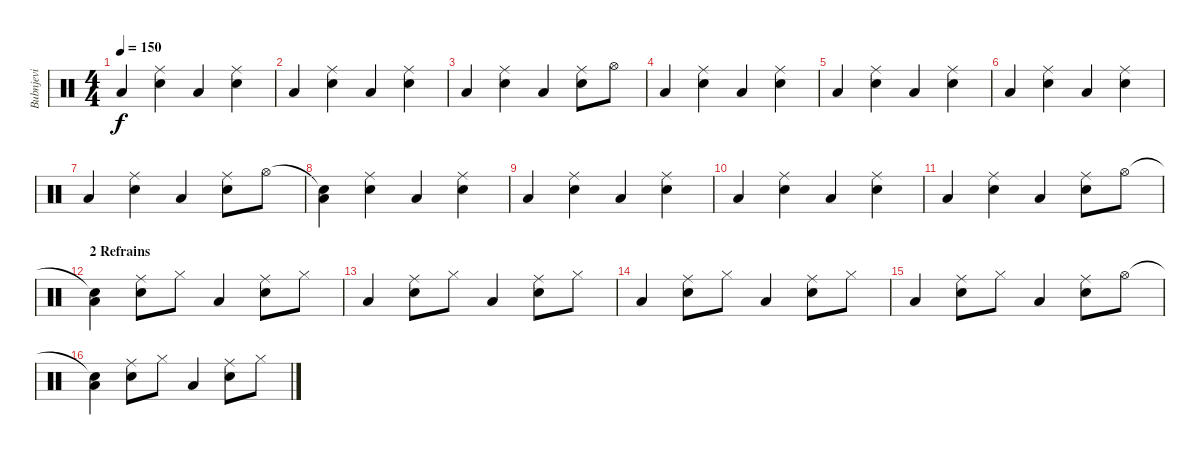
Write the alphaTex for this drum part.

\track ("Bubnjevi" "Bubnjevi") {instrument percussion}
\staff {score}
\articulation defaults
\ts (4 4)
\tempo 150
\clef neutral
\ks c "Low Tom (hit)".4{dy f}
("Ride (middle)" "Snare (hit) 2").4 "Low Tom (hit)".4 ("Ride (middle)" "Snare (hit) 2").4 |
"Low Tom (hit)".4 ("Ride (middle)" "Snare (hit) 2").4 "Low Tom (hit)".4 ("Ride (middle)" "Snare (hit) 2").4 |
"Low Tom (hit)".4 ("Ride (middle)" "Snare (hit) 2").4 "Low Tom (hit)".4 ("Ride (middle)" "Snare (hit) 2").8 "Hi-Hat (open)".8 |
"Low Tom (hit)".4 ("Ride (middle)" "Snare (hit) 2").4 "Low Tom (hit)".4 ("Ride (middle)" "Snare (hit) 2").4 |
"Low Tom (hit)".4 ("Ride (middle)" "Snare (hit) 2").4 "Low Tom (hit)".4 ("Ride (middle)" "Snare (hit) 2").4 |
"Low Tom (hit)".4 ("Ride (middle)" "Snare (hit) 2").4 "Low Tom (hit)".4 ("Ride (middle)" "Snare (hit) 2").4 |
"Low Tom (hit)".4 ("Ride (middle)" "Snare (hit) 2").4 "Low Tom (hit)".4 ("Ride (middle)" "Snare (hit) 2").8 "Hi-Hat (open)".8 |
("Snare (hit)"{t} "Low Tom (hit)").4 ("Ride (middle)" "Snare (hit) 2").4 "Low Tom (hit)".4 ("Ride (middle)" "Snare (hit) 2").4 |
"Low Tom (hit)".4 ("Ride (middle)" "Snare (hit) 2").4 "Low Tom (hit)".4 ("Ride (middle)" "Snare (hit) 2").4 |
"Low Tom (hit)".4 ("Ride (middle)" "Snare (hit) 2").4 "Low Tom (hit)".4 ("Ride (middle)" "Snare (hit) 2").4 |
"Low Tom (hit)".4 ("Ride (middle)" "Snare (hit) 2").4 "Low Tom (hit)".4 ("Ride (middle)" "Snare (hit) 2").8 "Hi-Hat (open)".8 |
\section ("" "2 Refrains")
("Snare (hit)"{t} "Low Tom (hit)").4 ("Ride (middle)" "Snare (hit) 2").8 "Hi-Hat (closed)".8 "Low Tom (hit)".4 ("Ride (middle)" "Snare (hit) 2").8 "Hi-Hat (closed)".8 |
"Low Tom (hit)".4 ("Ride (middle)" "Snare (hit) 2").8 "Hi-Hat (closed)".8 "Low Tom (hit)".4 ("Ride (middle)" "Snare (hit) 2").8 "Hi-Hat (closed)".8 |
"Low Tom (hit)".4 ("Ride (middle)" "Snare (hit) 2").8 "Hi-Hat (closed)".8 "Low Tom (hit)".4 ("Ride (middle)" "Snare (hit) 2").8 "Hi-Hat (closed)".8 |
"Low Tom (hit)".4 ("Ride (middle)" "Snare (hit) 2").8 "Hi-Hat (closed)".8 "Low Tom (hit)".4 ("Ride (middle)" "Snare (hit) 2").8 "Hi-Hat (open)".8 |
("Snare (hit)"{t} "Low Tom (hit)").4 ("Ride (middle)" "Snare (hit) 2").8 "Hi-Hat (closed)".8 "Low Tom (hit)".4 ("Ride (middle)" "Snare (hit) 2").8 "Hi-Hat (closed)".8
